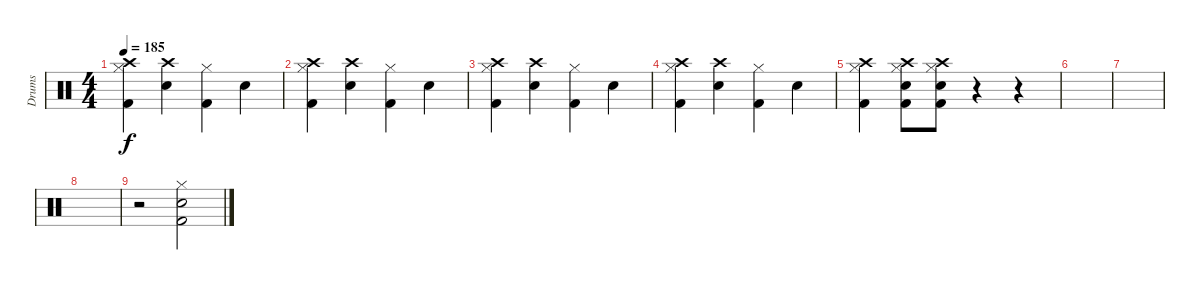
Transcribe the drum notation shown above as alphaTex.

\track ("Drums" "Drums") {instrument percussion}
\staff {score}
\articulation defaults
\ts (4 4)
\tempo 185
\clef neutral
\ks c
("Hi-Hat (closed)" "Kick (hit) 2" "Crash high (hit)").4{dy f} ("Snare (hit) 2" "Crash high (hit)").4 ("Hi-Hat (closed)" "Kick (hit) 2").4 "Snare (hit) 2".4 |
("Hi-Hat (closed)" "Kick (hit) 2" "Crash high (hit)").4 ("Snare (hit) 2" "Crash high (hit)").4 ("Hi-Hat (closed)" "Kick (hit) 2").4 "Snare (hit) 2".4 |
("Hi-Hat (closed)" "Kick (hit) 2" "Crash high (hit)").4 ("Snare (hit) 2" "Crash high (hit)").4 ("Hi-Hat (closed)" "Kick (hit) 2").4 "Snare (hit) 2".4 |
("Hi-Hat (closed)" "Kick (hit) 2" "Crash high (hit)").4 ("Snare (hit) 2" "Crash high (hit)").4 ("Hi-Hat (closed)" "Kick (hit) 2").4 "Snare (hit) 2".4 |
("Hi-Hat (closed)" "Kick (hit) 2" "Crash high (hit)").4 ("Hi-Hat (closed)" "Snare (hit) 2" "Kick (hit) 2" "Crash high (hit)").8 ("Hi-Hat (closed)" "Snare (hit) 2" "Kick (hit) 2" "Crash high (hit)").8 r.4 r.4 |
|
|
|
r.2 ("Hi-Hat (closed)" "Snare (hit) 2" "Kick (hit) 2").2
